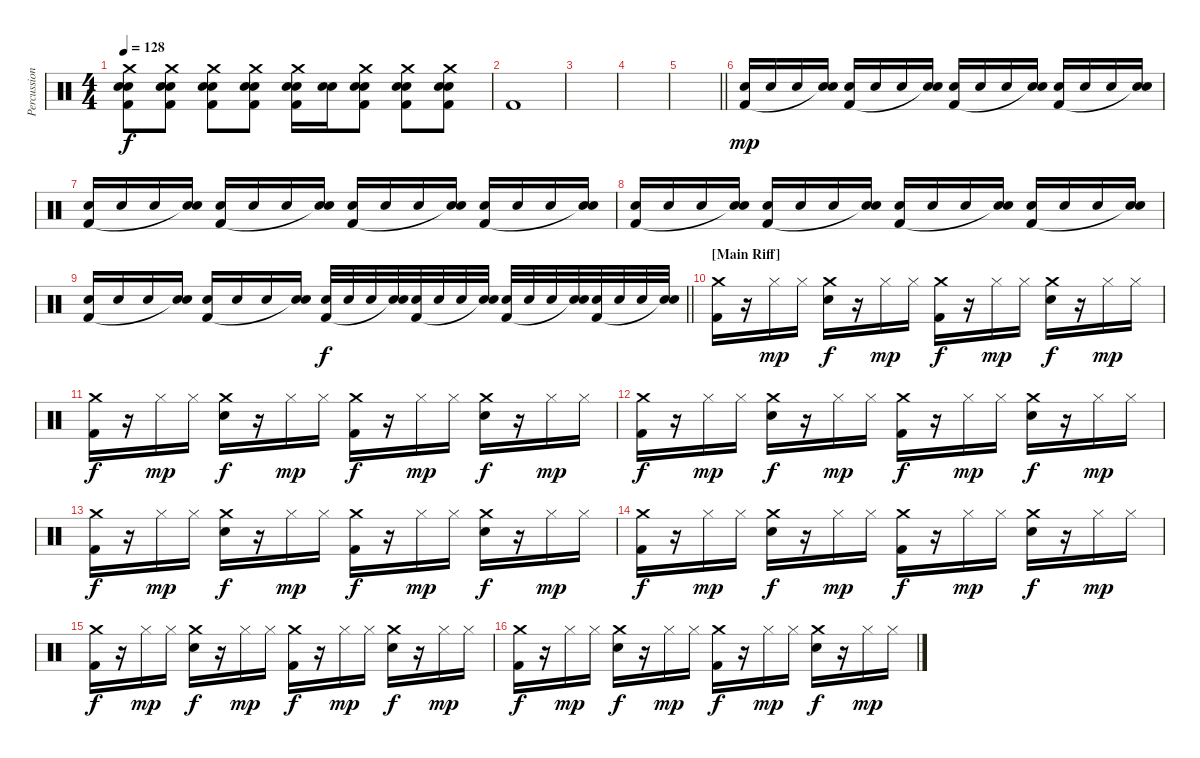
\track ("Percussion" "Percussion") {instrument percussion}
\staff {score}
\articulation defaults
\ts (4 4)
\tempo 128
\clef neutral
\ks c
("Crash medium (hit)" "Hand Clap (hit)" "Snare (hit) 2" "Kick (hit) 2").8{dy f} ("Crash medium (hit)" "Hand Clap (hit)" "Snare (hit) 2" "Kick (hit) 2").8 ("Crash medium (hit)" "Hand Clap (hit)" "Snare (hit) 2" "Kick (hit) 2").8 ("Crash medium (hit)" "Hand Clap (hit)" "Snare (hit) 2" "Kick (hit) 2").8 ("Crash medium (hit)" "Hand Clap (hit)" "Snare (hit) 2" "Kick (hit) 2").16 ("Hand Clap (hit)" "Snare (hit) 2").16 ("Crash medium (hit)" "Hand Clap (hit)" "Snare (hit) 2" "Kick (hit) 2").8 ("Crash medium (hit)" "Hand Clap (hit)" "Snare (hit) 2" "Kick (hit) 2").8 ("Crash medium (hit)" "Hand Clap (hit)" "Snare (hit) 2" "Kick (hit) 2").8 |
"Kick (hit) 2".1 |
|
|
\barLineRight lightlight
|
("Snare (hit) 2" "Kick (hit) 2").16{dy mp} "Snare (hit) 2".16 "Snare (hit) 2".16 ("Snare (hit) 2" "Snare (hit)"{t}).16 ("Snare (hit) 2" "Kick (hit) 2").16 "Snare (hit) 2".16 "Snare (hit) 2".16 ("Snare (hit) 2" "Snare (hit)"{t}).16 ("Snare (hit) 2" "Kick (hit) 2").16 "Snare (hit) 2".16 "Snare (hit) 2".16 ("Snare (hit) 2" "Snare (hit)"{t}).16 ("Snare (hit) 2" "Kick (hit) 2").16 "Snare (hit) 2".16 "Snare (hit) 2".16 ("Snare (hit) 2" "Snare (hit)"{t}).16 |
("Snare (hit) 2" "Kick (hit) 2").16 "Snare (hit) 2".16 "Snare (hit) 2".16 ("Snare (hit) 2" "Snare (hit)"{t}).16 ("Snare (hit) 2" "Kick (hit) 2").16 "Snare (hit) 2".16 "Snare (hit) 2".16 ("Snare (hit) 2" "Snare (hit)"{t}).16 ("Snare (hit) 2" "Kick (hit) 2").16 "Snare (hit) 2".16 "Snare (hit) 2".16 ("Snare (hit) 2" "Snare (hit)"{t}).16 ("Snare (hit) 2" "Kick (hit) 2").16 "Snare (hit) 2".16 "Snare (hit) 2".16 ("Snare (hit) 2" "Snare (hit)"{t}).16 |
("Snare (hit) 2" "Kick (hit) 2").16 "Snare (hit) 2".16 "Snare (hit) 2".16 ("Snare (hit) 2" "Snare (hit)"{t}).16 ("Snare (hit) 2" "Kick (hit) 2").16 "Snare (hit) 2".16 "Snare (hit) 2".16 ("Snare (hit) 2" "Snare (hit)"{t}).16 ("Snare (hit) 2" "Kick (hit) 2").16 "Snare (hit) 2".16 "Snare (hit) 2".16 ("Snare (hit) 2" "Snare (hit)"{t}).16 ("Snare (hit) 2" "Kick (hit) 2").16 "Snare (hit) 2".16 "Snare (hit) 2".16 ("Snare (hit) 2" "Snare (hit)"{t}).16 |
\barLineRight lightlight
("Snare (hit) 2" "Kick (hit) 2").16 "Snare (hit) 2".16 "Snare (hit) 2".16 ("Snare (hit) 2" "Snare (hit)"{t}).16 ("Snare (hit) 2" "Kick (hit) 2").16 "Snare (hit) 2".16 "Snare (hit) 2".16 ("Snare (hit) 2" "Snare (hit)"{t}).16 ("Snare (hit) 2" "Kick (hit) 2").32{dy f} "Snare (hit) 2".32 "Snare (hit) 2".32 ("Snare (hit) 2" "Snare (hit)"{t}).32 ("Snare (hit) 2" "Kick (hit) 2").32 "Snare (hit) 2".32 "Snare (hit) 2".32 ("Snare (hit) 2" "Snare (hit)"{t}).32 ("Snare (hit) 2" "Kick (hit) 2").32 "Snare (hit) 2".32 "Snare (hit) 2".32 ("Snare (hit) 2" "Snare (hit)"{t}).32 ("Snare (hit) 2" "Kick (hit) 2").32 "Snare (hit) 2".32 "Snare (hit) 2".32 ("Snare (hit) 2" "Snare (hit)"{t}).32 |
\section ("" "[Main Riff]")
("Crash medium (hit)" "Kick (hit) 2").16 r.16 "Hi-Hat (closed)".16{dy mp} "Hi-Hat (closed)".16 ("Crash medium (hit)" "Snare (hit) 2").16{dy f} r.16 "Hi-Hat (closed)".16{dy mp} "Hi-Hat (closed)".16 ("Crash medium (hit)" "Kick (hit) 2").16{dy f} r.16 "Hi-Hat (closed)".16{dy mp} "Hi-Hat (closed)".16 ("Crash medium (hit)" "Snare (hit) 2").16{dy f} r.16 "Hi-Hat (closed)".16{dy mp} "Hi-Hat (closed)".16 |
("Crash medium (hit)" "Kick (hit) 2").16{dy f} r.16 "Hi-Hat (closed)".16{dy mp} "Hi-Hat (closed)".16 ("Crash medium (hit)" "Snare (hit) 2").16{dy f} r.16 "Hi-Hat (closed)".16{dy mp} "Hi-Hat (closed)".16 ("Crash medium (hit)" "Kick (hit) 2").16{dy f} r.16 "Hi-Hat (closed)".16{dy mp} "Hi-Hat (closed)".16 ("Crash medium (hit)" "Snare (hit) 2").16{dy f} r.16 "Hi-Hat (closed)".16{dy mp} "Hi-Hat (closed)".16 |
("Crash medium (hit)" "Kick (hit) 2").16{dy f} r.16 "Hi-Hat (closed)".16{dy mp} "Hi-Hat (closed)".16 ("Crash medium (hit)" "Snare (hit) 2").16{dy f} r.16 "Hi-Hat (closed)".16{dy mp} "Hi-Hat (closed)".16 ("Crash medium (hit)" "Kick (hit) 2").16{dy f} r.16 "Hi-Hat (closed)".16{dy mp} "Hi-Hat (closed)".16 ("Crash medium (hit)" "Snare (hit) 2").16{dy f} r.16 "Hi-Hat (closed)".16{dy mp} "Hi-Hat (closed)".16 |
("Crash medium (hit)" "Kick (hit) 2").16{dy f} r.16 "Hi-Hat (closed)".16{dy mp} "Hi-Hat (closed)".16 ("Crash medium (hit)" "Snare (hit) 2").16{dy f} r.16 "Hi-Hat (closed)".16{dy mp} "Hi-Hat (closed)".16 ("Crash medium (hit)" "Kick (hit) 2").16{dy f} r.16 "Hi-Hat (closed)".16{dy mp} "Hi-Hat (closed)".16 ("Crash medium (hit)" "Snare (hit) 2").16{dy f} r.16 "Hi-Hat (closed)".16{dy mp} "Hi-Hat (closed)".16 |
("Crash medium (hit)" "Kick (hit) 2").16{dy f} r.16 "Hi-Hat (closed)".16{dy mp} "Hi-Hat (closed)".16 ("Crash medium (hit)" "Snare (hit) 2").16{dy f} r.16 "Hi-Hat (closed)".16{dy mp} "Hi-Hat (closed)".16 ("Crash medium (hit)" "Kick (hit) 2").16{dy f} r.16 "Hi-Hat (closed)".16{dy mp} "Hi-Hat (closed)".16 ("Crash medium (hit)" "Snare (hit) 2").16{dy f} r.16 "Hi-Hat (closed)".16{dy mp} "Hi-Hat (closed)".16 |
("Crash medium (hit)" "Kick (hit) 2").16{dy f} r.16 "Hi-Hat (closed)".16{dy mp} "Hi-Hat (closed)".16 ("Crash medium (hit)" "Snare (hit) 2").16{dy f} r.16 "Hi-Hat (closed)".16{dy mp} "Hi-Hat (closed)".16 ("Crash medium (hit)" "Kick (hit) 2").16{dy f} r.16 "Hi-Hat (closed)".16{dy mp} "Hi-Hat (closed)".16 ("Crash medium (hit)" "Snare (hit) 2").16{dy f} r.16 "Hi-Hat (closed)".16{dy mp} "Hi-Hat (closed)".16 |
("Crash medium (hit)" "Kick (hit) 2").16{dy f} r.16 "Hi-Hat (closed)".16{dy mp} "Hi-Hat (closed)".16 ("Crash medium (hit)" "Snare (hit) 2").16{dy f} r.16 "Hi-Hat (closed)".16{dy mp} "Hi-Hat (closed)".16 ("Crash medium (hit)" "Kick (hit) 2").16{dy f} r.16 "Hi-Hat (closed)".16{dy mp} "Hi-Hat (closed)".16 ("Crash medium (hit)" "Snare (hit) 2").16{dy f} r.16 "Hi-Hat (closed)".16{dy mp} "Hi-Hat (closed)".16
